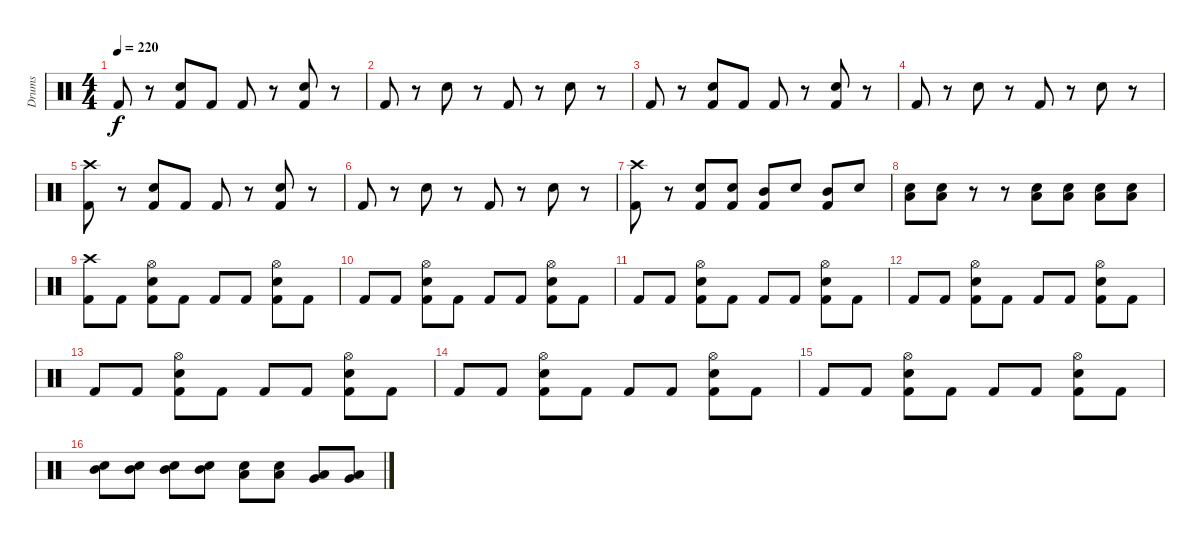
\track ("Drums" "Drums") {instrument percussion}
\staff {score}
\articulation defaults
\ts (4 4)
\tempo 220
\clef neutral
\ks c "Kick (hit) 2".8{dy f}
r.8 ("Electric Snare (hit)" "Kick (hit) 2").8 "Kick (hit) 2".8 "Kick (hit) 2".8 r.8 ("Electric Snare (hit)" "Kick (hit) 2").8 r.8 |
"Kick (hit) 2".8 r.8 "Electric Snare (hit)".8 r.8 "Kick (hit) 2".8 r.8 "Electric Snare (hit)".8 r.8 |
"Kick (hit) 2".8 r.8 ("Electric Snare (hit)" "Kick (hit) 2").8 "Kick (hit) 2".8 "Kick (hit) 2".8 r.8 ("Electric Snare (hit)" "Kick (hit) 2").8 r.8 |
"Kick (hit) 2".8 r.8 "Electric Snare (hit)".8 r.8 "Kick (hit) 2".8 r.8 "Electric Snare (hit)".8 r.8 |
("Crash high (hit)" "Kick (hit) 2").8 r.8 ("Electric Snare (hit)" "Kick (hit) 2").8 "Kick (hit) 2".8 "Kick (hit) 2".8 r.8 ("Electric Snare (hit)" "Kick (hit) 2").8 r.8 |
"Kick (hit) 2".8 r.8 "Electric Snare (hit)".8 r.8 "Kick (hit) 2".8 r.8 "Electric Snare (hit)".8 r.8 |
("Crash high (hit)" "Kick (hit) 2").8 r.8 ("Electric Snare (hit)" "Kick (hit) 2").8 ("Electric Snare (hit)" "Kick (hit) 2").8 ("Mid Tom (hit)" "Kick (hit) 2").8 "Electric Snare (hit)".8 ("Mid Tom (hit)" "Kick (hit) 2").8 "Electric Snare (hit)".8 |
("Electric Snare (hit)" "Low Tom (hit)").8 ("Electric Snare (hit)" "Low Tom (hit)").8 r.8 r.8 ("Low Tom (hit)" "Electric Snare (hit)").8 ("Low Tom (hit)" "Electric Snare (hit)").8 ("Low Tom (hit)" "Electric Snare (hit)").8 ("Low Tom (hit)" "Electric Snare (hit)").8 |
("Crash high (hit)" "Kick (hit) 2").8 "Kick (hit) 2".8 ("Electric Snare (hit)" "Hi-Hat (open)" "Kick (hit) 2").8 "Kick (hit) 2".8 "Kick (hit) 2".8 "Kick (hit) 2".8 ("Electric Snare (hit)" "Hi-Hat (open)" "Kick (hit) 2").8 "Kick (hit) 2".8 |
"Kick (hit) 2".8 "Kick (hit) 2".8 ("Electric Snare (hit)" "Hi-Hat (open)" "Kick (hit) 2").8 "Kick (hit) 2".8 "Kick (hit) 2".8 "Kick (hit) 2".8 ("Electric Snare (hit)" "Hi-Hat (open)" "Kick (hit) 2").8 "Kick (hit) 2".8 |
"Kick (hit) 2".8 "Kick (hit) 2".8 ("Electric Snare (hit)" "Hi-Hat (open)" "Kick (hit) 2").8 "Kick (hit) 2".8 "Kick (hit) 2".8 "Kick (hit) 2".8 ("Electric Snare (hit)" "Hi-Hat (open)" "Kick (hit) 2").8 "Kick (hit) 2".8 |
"Kick (hit) 2".8 "Kick (hit) 2".8 ("Electric Snare (hit)" "Hi-Hat (open)" "Kick (hit) 2").8 "Kick (hit) 2".8 "Kick (hit) 2".8 "Kick (hit) 2".8 ("Electric Snare (hit)" "Hi-Hat (open)" "Kick (hit) 2").8 "Kick (hit) 2".8 |
"Kick (hit) 2".8 "Kick (hit) 2".8 ("Electric Snare (hit)" "Hi-Hat (open)" "Kick (hit) 2").8 "Kick (hit) 2".8 "Kick (hit) 2".8 "Kick (hit) 2".8 ("Electric Snare (hit)" "Hi-Hat (open)" "Kick (hit) 2").8 "Kick (hit) 2".8 |
"Kick (hit) 2".8 "Kick (hit) 2".8 ("Electric Snare (hit)" "Hi-Hat (open)" "Kick (hit) 2").8 "Kick (hit) 2".8 "Kick (hit) 2".8 "Kick (hit) 2".8 ("Electric Snare (hit)" "Hi-Hat (open)" "Kick (hit) 2").8 "Kick (hit) 2".8 |
"Kick (hit) 2".8 "Kick (hit) 2".8 ("Electric Snare (hit)" "Hi-Hat (open)" "Kick (hit) 2").8 "Kick (hit) 2".8 "Kick (hit) 2".8 "Kick (hit) 2".8 ("Electric Snare (hit)" "Hi-Hat (open)" "Kick (hit) 2").8 "Kick (hit) 2".8 |
("Electric Snare (hit)" "Mid Tom (hit)").8 ("Electric Snare (hit)" "Mid Tom (hit)").8 ("Electric Snare (hit)" "Mid Tom (hit)").8 ("Electric Snare (hit)" "Mid Tom (hit)").8 ("Electric Snare (hit)" "Low Tom (hit)").8 ("Electric Snare (hit)" "Low Tom (hit)").8 ("Very Low Tom (hit)" "Low Tom (hit)").8 ("Very Low Tom (hit)" "Low Tom (hit)").8
